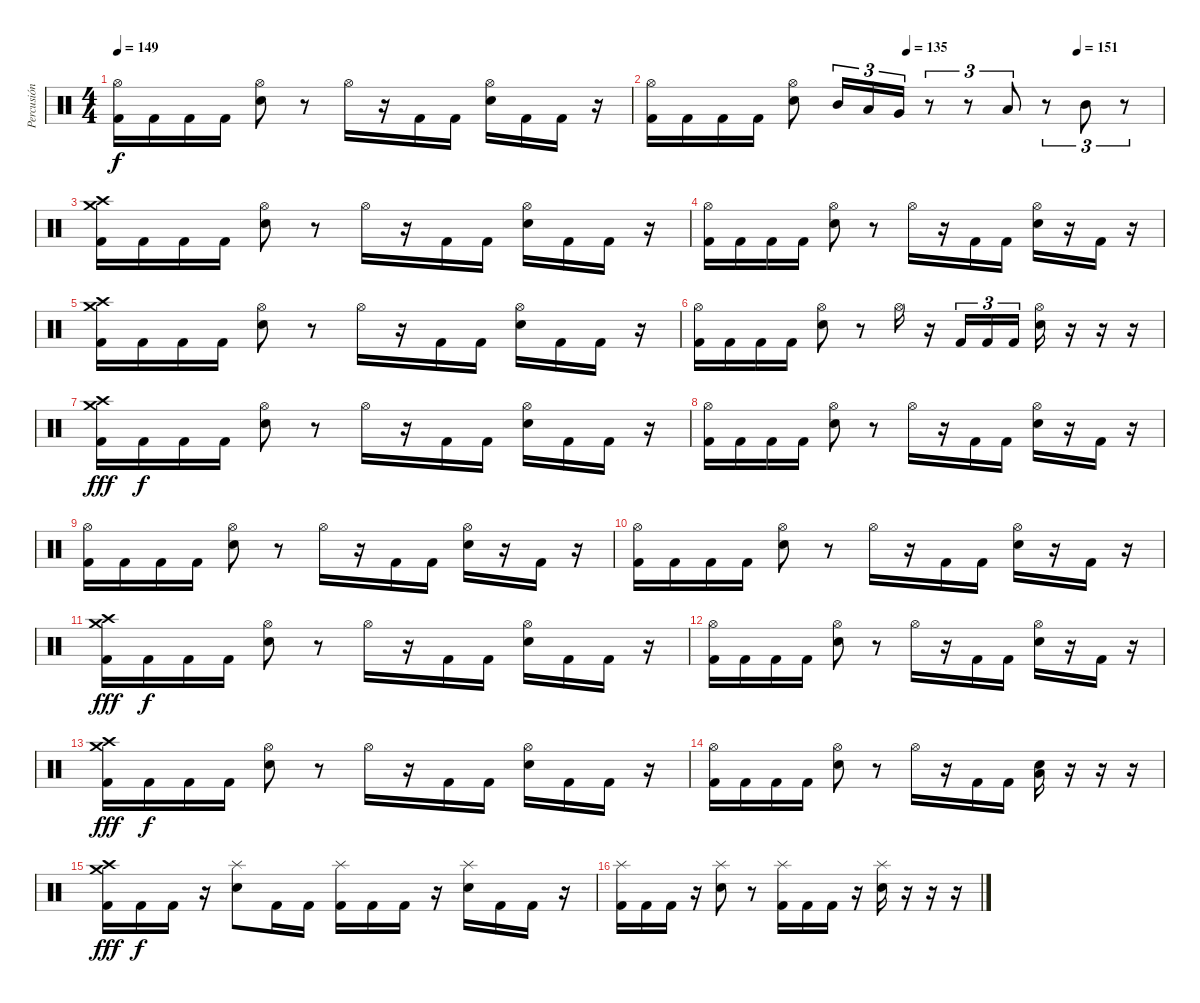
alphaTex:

\track ("Percusión" "Percusión") {instrument percussion}
\staff {score}
\articulation defaults
\ts (4 4)
\tempo 149
\clef neutral
\ks c
("Hi-Hat (open)" "Kick (hit) 2").16{dy f} "Kick (hit) 2".16 "Kick (hit) 2".16 "Kick (hit) 2".16 ("Hi-Hat (open)" "Electric Snare (hit)").8 r.8 "Hi-Hat (open)".16 r.16 "Kick (hit) 2".16 "Kick (hit) 2".16 ("Hi-Hat (open)" "Electric Snare (hit)").16 "Kick (hit) 2".16 "Kick (hit) 2".16 r.16 |
\tempo (135 0.5)
\tempo (151 0.8333333333333334)
("Hi-Hat (open)" "Kick (hit) 2").16 "Kick (hit) 2".16 "Kick (hit) 2".16 "Kick (hit) 2".16 ("Hi-Hat (open)" "Electric Snare (hit)").8 "Mid Tom (hit)".16{tu (3 2)} "Low Tom (hit)".16{tu (3 2)} "Very Low Tom (hit)".16{tu (3 2)} r.8{tu (3 2)} r.8{tu (3 2)} "Low Tom (hit)".8{tu (3 2)} r.8{tu (3 2)} "Mid Tom (hit)".8{tu (3 2)} r.8{tu (3 2)} |
("Crash high (hit)" "Crash medium (hit)" "Kick (hit) 2").16 "Kick (hit) 2".16 "Kick (hit) 2".16 "Kick (hit) 2".16 ("Hi-Hat (open)" "Electric Snare (hit)").8 r.8 "Hi-Hat (open)".16 r.16 "Kick (hit) 2".16 "Kick (hit) 2".16 ("Hi-Hat (open)" "Electric Snare (hit)").16 "Kick (hit) 2".16 "Kick (hit) 2".16 r.16 |
("Hi-Hat (open)" "Kick (hit) 2").16 "Kick (hit) 2".16 "Kick (hit) 2".16 "Kick (hit) 2".16 ("Hi-Hat (open)" "Electric Snare (hit)").8 r.8 "Hi-Hat (open)".16 r.16 "Kick (hit) 2".16 "Kick (hit) 2".16 ("Hi-Hat (open)" "Electric Snare (hit)").16 r.16 "Kick (hit) 2".16 r.16 |
("Crash high (hit)" "Crash medium (hit)" "Kick (hit) 2").16 "Kick (hit) 2".16 "Kick (hit) 2".16 "Kick (hit) 2".16 ("Hi-Hat (open)" "Electric Snare (hit)").8 r.8 "Hi-Hat (open)".16 r.16 "Kick (hit) 2".16 "Kick (hit) 2".16 ("Hi-Hat (open)" "Electric Snare (hit)").16 "Kick (hit) 2".16 "Kick (hit) 2".16 r.16 |
("Hi-Hat (open)" "Kick (hit) 2").16 "Kick (hit) 2".16 "Kick (hit) 2".16 "Kick (hit) 2".16 ("Hi-Hat (open)" "Electric Snare (hit)").8 r.8 "Hi-Hat (open)".16 r.16 "Kick (hit) 2".16{tu (3 2)} "Kick (hit) 2".16{tu (3 2)} "Kick (hit) 2".16{tu (3 2)} ("Hi-Hat (open)" "Electric Snare (hit)").16 r.16 r.16 r.16 |
("Crash high (hit)" "Crash medium (hit)" "Kick (hit) 2").16{dy fff} "Kick (hit) 2".16{dy f} "Kick (hit) 2".16 "Kick (hit) 2".16 ("Hi-Hat (open)" "Electric Snare (hit)").8 r.8 "Hi-Hat (open)".16 r.16 "Kick (hit) 2".16 "Kick (hit) 2".16 ("Hi-Hat (open)" "Electric Snare (hit)").16 "Kick (hit) 2".16 "Kick (hit) 2".16 r.16 |
("Hi-Hat (open)" "Kick (hit) 2").16 "Kick (hit) 2".16 "Kick (hit) 2".16 "Kick (hit) 2".16 ("Hi-Hat (open)" "Electric Snare (hit)").8 r.8 "Hi-Hat (open)".16 r.16 "Kick (hit) 2".16 "Kick (hit) 2".16 ("Hi-Hat (open)" "Electric Snare (hit)").16 r.16 "Kick (hit) 2".16 r.16 |
("Hi-Hat (open)" "Kick (hit) 2").16 "Kick (hit) 2".16 "Kick (hit) 2".16 "Kick (hit) 2".16 ("Hi-Hat (open)" "Electric Snare (hit)").8 r.8 "Hi-Hat (open)".16 r.16 "Kick (hit) 2".16 "Kick (hit) 2".16 ("Hi-Hat (open)" "Electric Snare (hit)").16 r.16 "Kick (hit) 2".16 r.16 |
("Hi-Hat (open)" "Kick (hit) 2").16 "Kick (hit) 2".16 "Kick (hit) 2".16 "Kick (hit) 2".16 ("Hi-Hat (open)" "Electric Snare (hit)").8 r.8 "Hi-Hat (open)".16 r.16 "Kick (hit) 2".16 "Kick (hit) 2".16 ("Hi-Hat (open)" "Electric Snare (hit)").16 r.16 "Kick (hit) 2".16 r.16 |
("Crash high (hit)" "Crash medium (hit)" "Kick (hit) 2").16{dy fff} "Kick (hit) 2".16{dy f} "Kick (hit) 2".16 "Kick (hit) 2".16 ("Hi-Hat (open)" "Electric Snare (hit)").8 r.8 "Hi-Hat (open)".16 r.16 "Kick (hit) 2".16 "Kick (hit) 2".16 ("Hi-Hat (open)" "Electric Snare (hit)").16 "Kick (hit) 2".16 "Kick (hit) 2".16 r.16 |
("Hi-Hat (open)" "Kick (hit) 2").16 "Kick (hit) 2".16 "Kick (hit) 2".16 "Kick (hit) 2".16 ("Hi-Hat (open)" "Electric Snare (hit)").8 r.8 "Hi-Hat (open)".16 r.16 "Kick (hit) 2".16 "Kick (hit) 2".16 ("Hi-Hat (open)" "Electric Snare (hit)").16 r.16 "Kick (hit) 2".16 r.16 |
("Crash high (hit)" "Crash medium (hit)" "Kick (hit) 2").16{dy fff} "Kick (hit) 2".16{dy f} "Kick (hit) 2".16 "Kick (hit) 2".16 ("Hi-Hat (open)" "Electric Snare (hit)").8 r.8 "Hi-Hat (open)".16 r.16 "Kick (hit) 2".16 "Kick (hit) 2".16 ("Hi-Hat (open)" "Electric Snare (hit)").16 "Kick (hit) 2".16 "Kick (hit) 2".16 r.16 |
("Hi-Hat (open)" "Kick (hit) 2").16 "Kick (hit) 2".16 "Kick (hit) 2".16 "Kick (hit) 2".16 ("Hi-Hat (open)" "Electric Snare (hit)").8 r.8 "Hi-Hat (open)".16 r.16 "Kick (hit) 2".16 "Kick (hit) 2".16 ("Electric Snare (hit)" "Low Tom (hit)").16 r.16 r.16 r.16 |
("Crash high (hit)" "Crash medium (hit)" "Kick (hit) 2").16{dy fff} "Kick (hit) 2".16{dy f} "Kick (hit) 2".16 r.16 ("Splash (hit)" "Electric Snare (hit)").8 "Kick (hit) 2".16 "Kick (hit) 2".16 ("Splash (hit)" "Kick (hit) 2").16 "Kick (hit) 2".16 "Kick (hit) 2".16 r.16 ("Splash (hit)" "Electric Snare (hit)").16 "Kick (hit) 2".16 "Kick (hit) 2".16 r.16 |
("Splash (hit)" "Kick (hit) 2").16 "Kick (hit) 2".16 "Kick (hit) 2".16 r.16 ("Splash (hit)" "Electric Snare (hit)").8 r.8 ("Splash (hit)" "Kick (hit) 2").16 "Kick (hit) 2".16 "Kick (hit) 2".16 r.16 ("Splash (hit)" "Electric Snare (hit)").16 r.16 r.16 r.16
